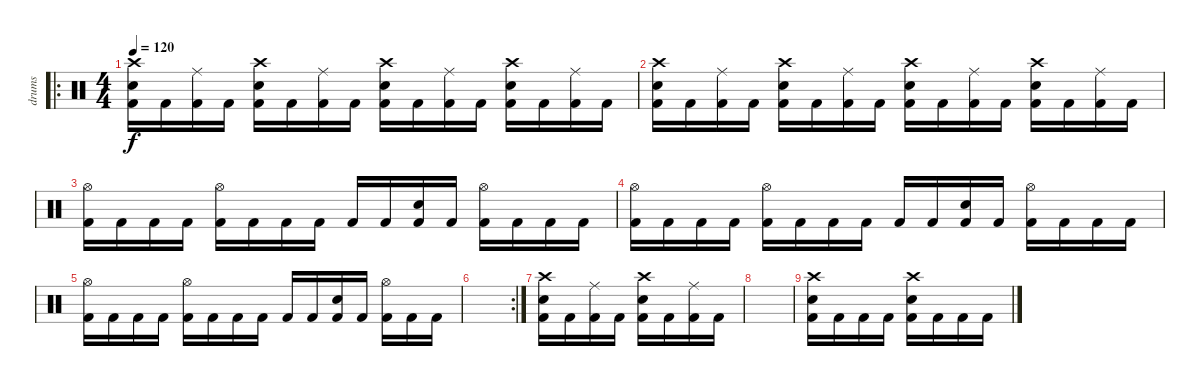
\track ("drums" "drums") {instrument percussion}
\staff {score}
\articulation defaults
\ro
\ts (4 4)
\tempo 120
\clef neutral
\ks c
("Crash high (hit)" "Snare (hit) 2" "Kick (hit) 2").16{dy f} "Kick (hit) 2".16 ("Ride (middle)" "Kick (hit) 2").16 "Kick (hit) 2".16 ("Crash high (hit)" "Snare (hit) 2" "Kick (hit) 2").16 "Kick (hit) 2".16 ("Ride (middle)" "Kick (hit) 2").16 "Kick (hit) 2".16 ("Crash high (hit)" "Snare (hit) 2" "Kick (hit) 2").16 "Kick (hit) 2".16 ("Ride (middle)" "Kick (hit) 2").16 "Kick (hit) 2".16 ("Crash high (hit)" "Snare (hit) 2" "Kick (hit) 2").16 "Kick (hit) 2".16 ("Ride (middle)" "Kick (hit) 2").16 "Kick (hit) 2".16 |
("Crash high (hit)" "Snare (hit) 2" "Kick (hit) 2").16 "Kick (hit) 2".16 ("Ride (middle)" "Kick (hit) 2").16 "Kick (hit) 2".16 ("Crash high (hit)" "Snare (hit) 2" "Kick (hit) 2").16 "Kick (hit) 2".16 ("Ride (middle)" "Kick (hit) 2").16 "Kick (hit) 2".16 ("Crash high (hit)" "Snare (hit) 2" "Kick (hit) 2").16 "Kick (hit) 2".16 ("Ride (middle)" "Kick (hit) 2").16 "Kick (hit) 2".16 ("Crash high (hit)" "Snare (hit) 2" "Kick (hit) 2").16 "Kick (hit) 2".16 ("Ride (middle)" "Kick (hit) 2").16 "Kick (hit) 2".16 |
("Hi-Hat (open)" "Kick (hit) 2").16 "Kick (hit) 2".16 "Kick (hit) 2".16 "Kick (hit) 2".16 ("Hi-Hat (open)" "Kick (hit) 2").16 "Kick (hit) 2".16 "Kick (hit) 2".16 "Kick (hit) 2".16 "Kick (hit) 2".16 "Kick (hit) 2".16 ("Snare (hit) 2" "Kick (hit) 2").16 "Kick (hit) 2".16 ("Hi-Hat (open)" "Kick (hit) 2").16 "Kick (hit) 2".16 "Kick (hit) 2".16 "Kick (hit) 2".16 |
("Hi-Hat (open)" "Kick (hit) 2").16 "Kick (hit) 2".16 "Kick (hit) 2".16 "Kick (hit) 2".16 ("Hi-Hat (open)" "Kick (hit) 2").16 "Kick (hit) 2".16 "Kick (hit) 2".16 "Kick (hit) 2".16 "Kick (hit) 2".16 "Kick (hit) 2".16 ("Snare (hit) 2" "Kick (hit) 2").16 "Kick (hit) 2".16 ("Hi-Hat (open)" "Kick (hit) 2").16 "Kick (hit) 2".16 "Kick (hit) 2".16 "Kick (hit) 2".16 |
("Hi-Hat (open)" "Kick (hit) 2").16 "Kick (hit) 2".16 "Kick (hit) 2".16 "Kick (hit) 2".16 ("Hi-Hat (open)" "Kick (hit) 2").16 "Kick (hit) 2".16 "Kick (hit) 2".16 "Kick (hit) 2".16 "Kick (hit) 2".16 "Kick (hit) 2".16 ("Snare (hit) 2" "Kick (hit) 2").16 "Kick (hit) 2".16 ("Hi-Hat (open)" "Kick (hit) 2").16 "Kick (hit) 2".16 "Kick (hit) 2".16 |
\rc 2
|
("Crash high (hit)" "Snare (hit) 2" "Kick (hit) 2").16 "Kick (hit) 2".16 ("Ride (middle)" "Kick (hit) 2").16 "Kick (hit) 2".16 ("Crash high (hit)" "Snare (hit) 2" "Kick (hit) 2").16 "Kick (hit) 2".16 ("Ride (middle)" "Kick (hit) 2").16 "Kick (hit) 2".16 |
|
("Crash high (hit)" "Snare (hit) 2" "Kick (hit) 2").16 "Kick (hit) 2".16 "Kick (hit) 2".16 "Kick (hit) 2".16 ("Crash high (hit)" "Snare (hit) 2" "Kick (hit) 2").16 "Kick (hit) 2".16 "Kick (hit) 2".16 "Kick (hit) 2".16
